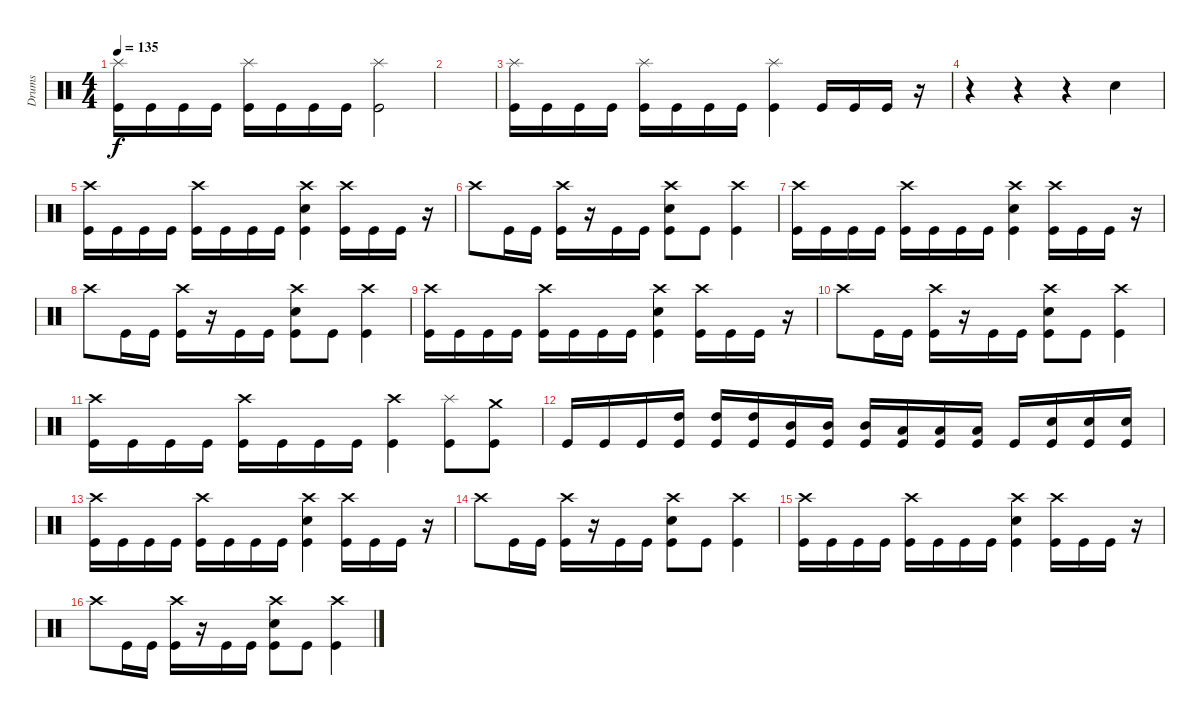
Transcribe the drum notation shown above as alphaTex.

\track ("Drums" "Drums") {instrument percussion}
\staff {score}
\articulation defaults
\ts (4 4)
\tempo 135
\clef neutral
\ks c
("Splash (hit)" "Kick (hit)").16{dy f} "Kick (hit)".16 "Kick (hit)".16 "Kick (hit)".16 ("Splash (hit)" "Kick (hit)").16 "Kick (hit)".16 "Kick (hit)".16 "Kick (hit)".16 ("Splash (hit)" "Kick (hit)").2 |
|
("Splash (hit)" "Kick (hit)").16 "Kick (hit)".16 "Kick (hit)".16 "Kick (hit)".16 ("Splash (hit)" "Kick (hit)").16 "Kick (hit)".16 "Kick (hit)".16 "Kick (hit)".16 ("Splash (hit)" "Kick (hit)").4 "Kick (hit)".16 "Kick (hit)".16 "Kick (hit)".16 r.16 |
r.4 r.4 r.4 "Snare (hit) 2".4 |
("Crash high (hit)" "Kick (hit)").16 "Kick (hit)".16 "Kick (hit)".16 "Kick (hit)".16 ("Crash high (hit)" "Kick (hit)").16 "Kick (hit)".16 "Kick (hit)".16 "Kick (hit)".16 ("Crash high (hit)" "Snare (hit) 2" "Kick (hit)").4 ("Crash high (hit)" "Kick (hit)").16 "Kick (hit)".16 "Kick (hit)".16 r.16 |
"Crash high (hit)".8 "Kick (hit)".16 "Kick (hit)".16 ("Crash high (hit)" "Kick (hit)").16 r.16 "Kick (hit)".16 "Kick (hit)".16 ("Crash high (hit)" "Snare (hit) 2" "Kick (hit)").8 "Kick (hit)".8 ("Crash high (hit)" "Kick (hit)").4 |
("Crash high (hit)" "Kick (hit)").16 "Kick (hit)".16 "Kick (hit)".16 "Kick (hit)".16 ("Crash high (hit)" "Kick (hit)").16 "Kick (hit)".16 "Kick (hit)".16 "Kick (hit)".16 ("Crash high (hit)" "Snare (hit) 2" "Kick (hit)").4 ("Crash high (hit)" "Kick (hit)").16 "Kick (hit)".16 "Kick (hit)".16 r.16 |
"Crash high (hit)".8 "Kick (hit)".16 "Kick (hit)".16 ("Crash high (hit)" "Kick (hit)").16 r.16 "Kick (hit)".16 "Kick (hit)".16 ("Crash high (hit)" "Snare (hit) 2" "Kick (hit)").8 "Kick (hit)".8 ("Crash high (hit)" "Kick (hit)").4 |
("Crash high (hit)" "Kick (hit)").16 "Kick (hit)".16 "Kick (hit)".16 "Kick (hit)".16 ("Crash high (hit)" "Kick (hit)").16 "Kick (hit)".16 "Kick (hit)".16 "Kick (hit)".16 ("Crash high (hit)" "Snare (hit) 2" "Kick (hit)").4 ("Crash high (hit)" "Kick (hit)").16 "Kick (hit)".16 "Kick (hit)".16 r.16 |
"Crash high (hit)".8 "Kick (hit)".16 "Kick (hit)".16 ("Crash high (hit)" "Kick (hit)").16 r.16 "Kick (hit)".16 "Kick (hit)".16 ("Crash high (hit)" "Snare (hit) 2" "Kick (hit)").8 "Kick (hit)".8 ("Crash high (hit)" "Kick (hit)").4 |
("Crash high (hit)" "Kick (hit)").16 "Kick (hit)".16 "Kick (hit)".16 "Kick (hit)".16 ("Crash high (hit)" "Kick (hit)").16 "Kick (hit)".16 "Kick (hit)".16 "Kick (hit)".16 ("Crash high (hit)" "Kick (hit)").4 ("Splash (hit)" "Kick (hit)").8 ("Crash medium (hit)" "Kick (hit)").8 |
"Kick (hit)".16 "Kick (hit)".16 "Kick (hit)".16 ("High Tom (hit)" "Kick (hit)").16 ("High Tom (hit)" "Kick (hit)").16 ("High Tom (hit)" "Kick (hit)").16 ("Mid Tom (hit)" "Kick (hit)").16 ("Mid Tom (hit)" "Kick (hit)").16 ("Mid Tom (hit)" "Kick (hit)").16 ("Low Tom (hit)" "Kick (hit)").16 ("Low Tom (hit)" "Kick (hit)").16 ("Low Tom (hit)" "Kick (hit)").16 "Kick (hit)".16 ("Snare (hit) 2" "Kick (hit)").16 ("Snare (hit) 2" "Kick (hit)").16 ("Snare (hit) 2" "Kick (hit)").16 |
("Crash high (hit)" "Kick (hit)").16 "Kick (hit)".16 "Kick (hit)".16 "Kick (hit)".16 ("Crash high (hit)" "Kick (hit)").16 "Kick (hit)".16 "Kick (hit)".16 "Kick (hit)".16 ("Crash high (hit)" "Snare (hit) 2" "Kick (hit)").4 ("Crash high (hit)" "Kick (hit)").16 "Kick (hit)".16 "Kick (hit)".16 r.16 |
"Crash high (hit)".8 "Kick (hit)".16 "Kick (hit)".16 ("Crash high (hit)" "Kick (hit)").16 r.16 "Kick (hit)".16 "Kick (hit)".16 ("Crash high (hit)" "Snare (hit) 2" "Kick (hit)").8 "Kick (hit)".8 ("Crash high (hit)" "Kick (hit)").4 |
("Crash high (hit)" "Kick (hit)").16 "Kick (hit)".16 "Kick (hit)".16 "Kick (hit)".16 ("Crash high (hit)" "Kick (hit)").16 "Kick (hit)".16 "Kick (hit)".16 "Kick (hit)".16 ("Crash high (hit)" "Snare (hit) 2" "Kick (hit)").4 ("Crash high (hit)" "Kick (hit)").16 "Kick (hit)".16 "Kick (hit)".16 r.16 |
"Crash high (hit)".8 "Kick (hit)".16 "Kick (hit)".16 ("Crash high (hit)" "Kick (hit)").16 r.16 "Kick (hit)".16 "Kick (hit)".16 ("Crash high (hit)" "Snare (hit) 2" "Kick (hit)").8 "Kick (hit)".8 ("Crash high (hit)" "Kick (hit)").4
